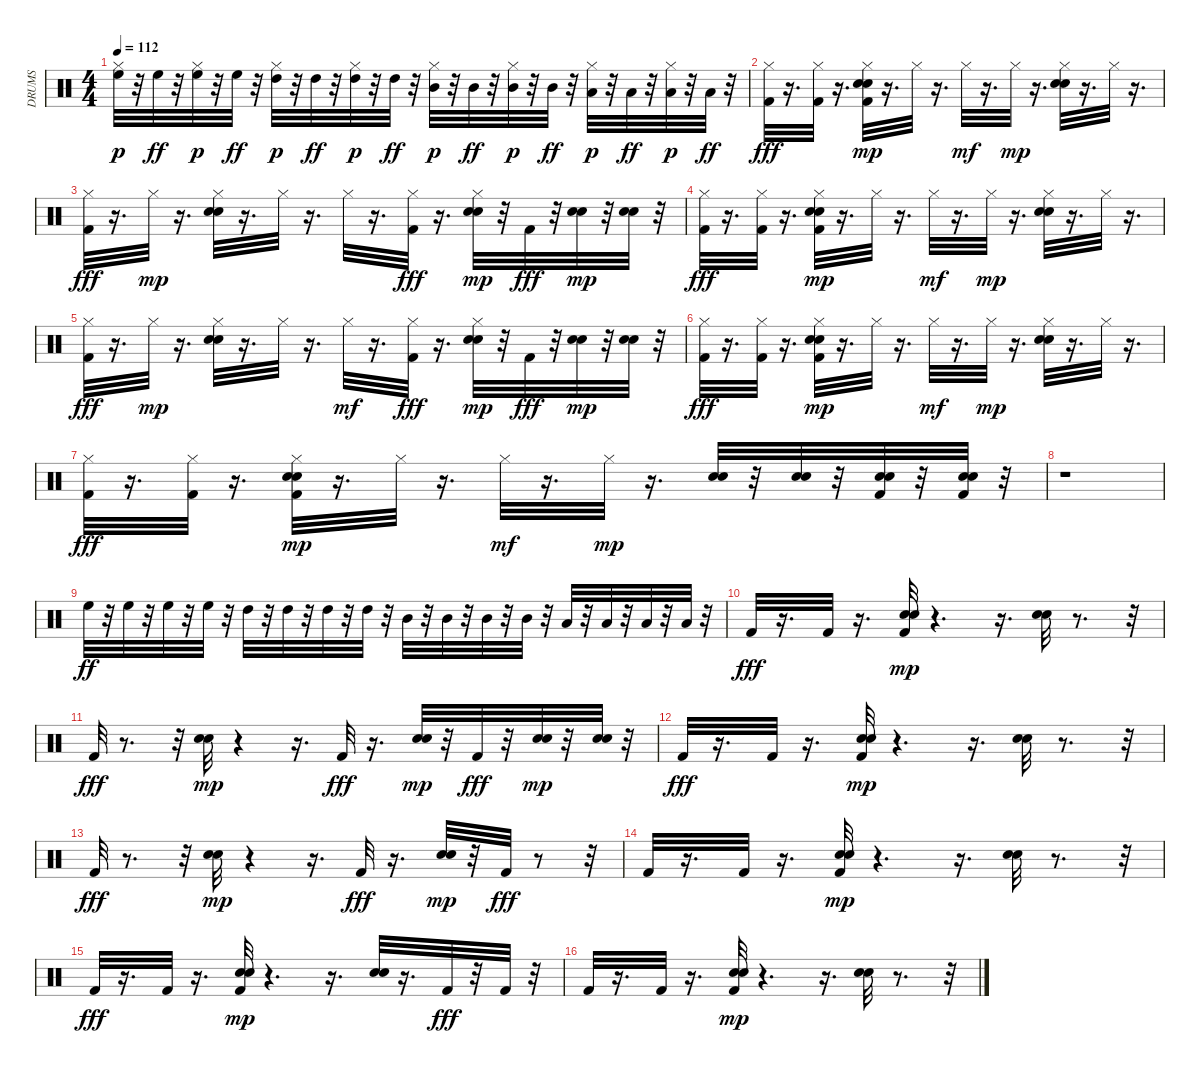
\track ("DRUMS" "DRUMS") {instrument percussion}
\staff {score}
\articulation defaults
\ts (4 4)
\tempo 112
\clef neutral
\ks c
("High Floor Tom (hit)" "Hi-Hat (closed)").32{dy p} r.32 "High Floor Tom (hit)".32{dy ff} r.32 ("High Floor Tom (hit)" "Hi-Hat (closed)").32{dy p} r.32 "High Floor Tom (hit)".32{dy ff} r.32 ("High Tom (hit)" "Hi-Hat (closed)").32{dy p} r.32 "High Tom (hit)".32{dy ff} r.32 ("High Tom (hit)" "Hi-Hat (closed)").32{dy p} r.32 "High Tom (hit)".32{dy ff} r.32 ("Mid Tom (hit)" "Hi-Hat (closed)").32{dy p} r.32 "Mid Tom (hit)".32{dy ff} r.32 ("Mid Tom (hit)" "Hi-Hat (closed)").32{dy p} r.32 "Mid Tom (hit)".32{dy ff} r.32 ("Low Tom (hit)" "Hi-Hat (closed)").32{dy p} r.32 "Low Tom (hit)".32{dy ff} r.32 ("Low Tom (hit)" "Hi-Hat (closed)").32{dy p} r.32 "Low Tom (hit)".32{dy ff} r.32 |
("Hi-Hat (closed)" "Kick (hit) 2").32{dy fff} r.16{d} ("Hi-Hat (closed)" "Kick (hit) 2").32 r.16{d} ("Hand Clap (hit)" "Hi-Hat (closed)" "Kick (hit) 2" "Electric Snare (hit)").32{dy mp} r.16{d} "Hi-Hat (closed)".32 r.16{d} "Hi-Hat (closed)".32{dy mf} r.16{d} "Hi-Hat (closed)".32{dy mp} r.16{d} ("Hand Clap (hit)" "Hi-Hat (closed)" "Electric Snare (hit)").32 r.16{d} "Hi-Hat (closed)".32 r.16{d} |
("Hi-Hat (closed)" "Kick (hit) 2").32{dy fff} r.16{d} "Hi-Hat (closed)".32{dy mp} r.16{d} ("Hand Clap (hit)" "Hi-Hat (closed)" "Electric Snare (hit)").32 r.16{d} "Hi-Hat (closed)".32 r.16{d} "Hi-Hat (closed)".32 r.16{d} ("Hi-Hat (closed)" "Kick (hit) 2").32{dy fff} r.16{d} ("Hand Clap (hit)" "Hi-Hat (closed)" "Electric Snare (hit)").32{dy mp} r.32 "Kick (hit) 2".32{dy fff} r.32 ("Hand Clap (hit)" "Electric Snare (hit)").32{dy mp} r.32 ("Hand Clap (hit)" "Electric Snare (hit)").32 r.32 |
("Hi-Hat (closed)" "Kick (hit) 2").32{dy fff} r.16{d} ("Hi-Hat (closed)" "Kick (hit) 2").32 r.16{d} ("Hand Clap (hit)" "Hi-Hat (closed)" "Kick (hit) 2" "Electric Snare (hit)").32{dy mp} r.16{d} "Hi-Hat (closed)".32 r.16{d} "Hi-Hat (closed)".32{dy mf} r.16{d} "Hi-Hat (closed)".32{dy mp} r.16{d} ("Hand Clap (hit)" "Hi-Hat (closed)" "Electric Snare (hit)").32 r.16{d} "Hi-Hat (closed)".32 r.16{d} |
("Hi-Hat (closed)" "Kick (hit) 2").32{dy fff} r.16{d} "Hi-Hat (closed)".32{dy mp} r.16{d} ("Hand Clap (hit)" "Hi-Hat (closed)" "Electric Snare (hit)").32 r.16{d} "Hi-Hat (closed)".32 r.16{d} "Hi-Hat (closed)".32{dy mf} r.16{d} ("Hi-Hat (closed)" "Kick (hit) 2").32{dy fff} r.16{d} ("Hand Clap (hit)" "Hi-Hat (closed)" "Electric Snare (hit)").32{dy mp} r.32 "Kick (hit) 2".32{dy fff} r.32 ("Hand Clap (hit)" "Electric Snare (hit)").32{dy mp} r.32 ("Hand Clap (hit)" "Electric Snare (hit)").32 r.32 |
("Hi-Hat (closed)" "Kick (hit) 2").32{dy fff} r.16{d} ("Hi-Hat (closed)" "Kick (hit) 2").32 r.16{d} ("Hand Clap (hit)" "Hi-Hat (closed)" "Kick (hit) 2" "Electric Snare (hit)").32{dy mp} r.16{d} "Hi-Hat (closed)".32 r.16{d} "Hi-Hat (closed)".32{dy mf} r.16{d} "Hi-Hat (closed)".32{dy mp} r.16{d} ("Hand Clap (hit)" "Hi-Hat (closed)" "Electric Snare (hit)").32 r.16{d} "Hi-Hat (closed)".32 r.16{d} |
("Hi-Hat (closed)" "Kick (hit) 2").32{dy fff} r.16{d} ("Hi-Hat (closed)" "Kick (hit) 2").32 r.16{d} ("Hand Clap (hit)" "Hi-Hat (closed)" "Kick (hit) 2" "Electric Snare (hit)").32{dy mp} r.16{d} "Hi-Hat (closed)".32 r.16{d} "Hi-Hat (closed)".32{dy mf} r.16{d} "Hi-Hat (closed)".32{dy mp} r.16{d} ("Hand Clap (hit)" "Electric Snare (hit)").32 r.32 ("Hand Clap (hit)" "Electric Snare (hit)").32 r.32 ("Hand Clap (hit)" "Kick (hit) 2" "Electric Snare (hit)").32 r.32 ("Hand Clap (hit)" "Kick (hit) 2" "Electric Snare (hit)").32 r.32 |
r.1 |
"High Floor Tom (hit)".32{dy ff} r.32 "High Floor Tom (hit)".32 r.32 "High Floor Tom (hit)".32 r.32 "High Floor Tom (hit)".32 r.32 "High Tom (hit)".32 r.32 "High Tom (hit)".32 r.32 "High Tom (hit)".32 r.32 "High Tom (hit)".32 r.32 "Mid Tom (hit)".32 r.32 "Mid Tom (hit)".32 r.32 "Mid Tom (hit)".32 r.32 "Mid Tom (hit)".32 r.32 "Low Tom (hit)".32 r.32 "Low Tom (hit)".32 r.32 "Low Tom (hit)".32 r.32 "Low Tom (hit)".32 r.32 |
"Kick (hit) 2".32{dy fff} r.16{d} "Kick (hit) 2".32 r.16{d} ("Hand Clap (hit)" "Kick (hit) 2" "Electric Snare (hit)").32{dy mp} r.4{d} r.16{d} ("Hand Clap (hit)" "Electric Snare (hit)").32 r.8{d} r.32 |
"Kick (hit) 2".32{dy fff} r.8{d} r.32 ("Hand Clap (hit)" "Electric Snare (hit)").32{dy mp} r.4 r.16{d} "Kick (hit) 2".32{dy fff} r.16{d} ("Hand Clap (hit)" "Electric Snare (hit)").32{dy mp} r.32 "Kick (hit) 2".32{dy fff} r.32 ("Hand Clap (hit)" "Electric Snare (hit)").32{dy mp} r.32 ("Hand Clap (hit)" "Electric Snare (hit)").32 r.32 |
"Kick (hit) 2".32{dy fff} r.16{d} "Kick (hit) 2".32 r.16{d} ("Hand Clap (hit)" "Kick (hit) 2" "Electric Snare (hit)").32{dy mp} r.4{d} r.16{d} ("Hand Clap (hit)" "Electric Snare (hit)").32 r.8{d} r.32 |
"Kick (hit) 2".32{dy fff} r.8{d} r.32 ("Hand Clap (hit)" "Electric Snare (hit)").32{dy mp} r.4 r.16{d} "Kick (hit) 2".32{dy fff} r.16{d} ("Hand Clap (hit)" "Electric Snare (hit)").32{dy mp} r.32 "Kick (hit) 2".32{dy fff} r.8 r.32 |
"Kick (hit) 2".32 r.16{d} "Kick (hit) 2".32 r.16{d} ("Hand Clap (hit)" "Kick (hit) 2" "Electric Snare (hit)").32{dy mp} r.4{d} r.16{d} ("Hand Clap (hit)" "Electric Snare (hit)").32 r.8{d} r.32 |
"Kick (hit) 2".32{dy fff} r.16{d} "Kick (hit) 2".32 r.16{d} ("Hand Clap (hit)" "Kick (hit) 2" "Electric Snare (hit)").32{dy mp} r.4{d} r.16{d} ("Hand Clap (hit)" "Electric Snare (hit)").32 r.16{d} "Kick (hit) 2".32{dy fff} r.32 "Kick (hit) 2".32 r.32 |
"Kick (hit) 2".32 r.16{d} "Kick (hit) 2".32 r.16{d} ("Hand Clap (hit)" "Kick (hit) 2" "Electric Snare (hit)").32{dy mp} r.4{d} r.16{d} ("Hand Clap (hit)" "Electric Snare (hit)").32 r.8{d} r.32
